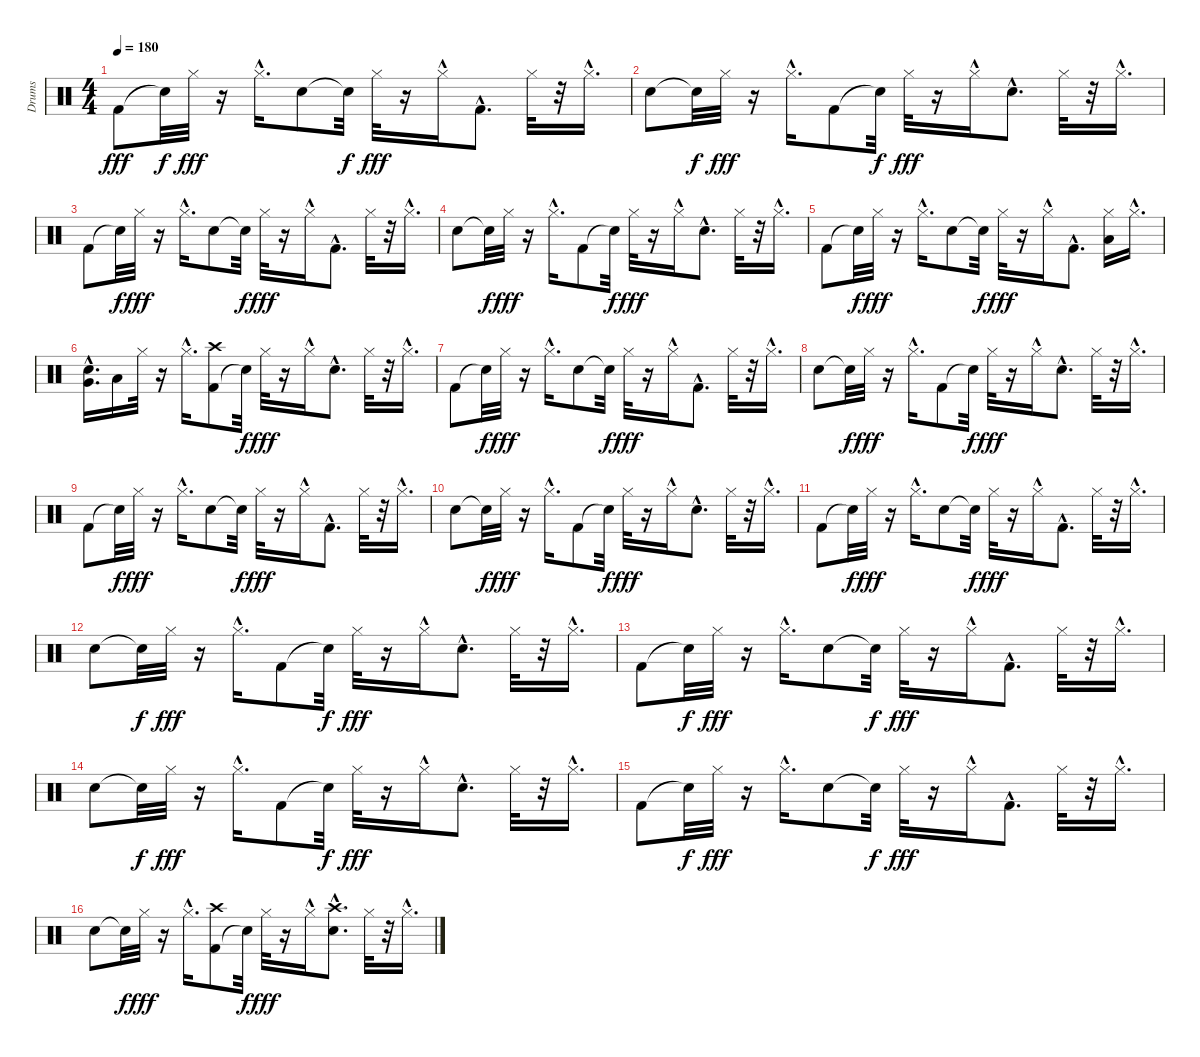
\track ("Drums" "Drums") {instrument percussion}
\staff {score}
\articulation defaults
\ts (4 4)
\tempo 180
\clef neutral
\ks c "Kick (hit) 2".8{dy fff} "Snare (hit)"{t}.32{dy f} "Hi-Hat (closed)".32{dy fff}
r.16 "Hi-Hat (closed)"{hac}.16{d} "Snare (hit) 2".8 "Snare (hit)"{t}.32{dy f} "Hi-Hat (closed)".32{dy fff} r.16 "Hi-Hat (closed)"{hac}.16 "Kick (hit) 2"{hac}.8{d} "Hi-Hat (closed)".32 r.32 "Hi-Hat (closed)"{hac}.16{d} |
"Snare (hit) 2".8 "Snare (hit)"{t}.32{dy f} "Hi-Hat (closed)".32{dy fff} r.16 "Hi-Hat (closed)"{hac}.16{d} "Kick (hit) 2".8 "Snare (hit)"{t}.32{dy f} "Hi-Hat (closed)".32{dy fff} r.16 "Hi-Hat (closed)"{hac}.16 "Snare (hit) 2"{hac}.8{d} "Hi-Hat (closed)".32 r.32 "Hi-Hat (closed)"{hac}.16{d} |
"Kick (hit) 2".8 "Snare (hit)"{t}.32{dy f} "Hi-Hat (closed)".32{dy fff} r.16 "Hi-Hat (closed)"{hac}.16{d} "Snare (hit) 2".8 "Snare (hit)"{t}.32{dy f} "Hi-Hat (closed)".32{dy fff} r.16 "Hi-Hat (closed)"{hac}.16 "Kick (hit) 2"{hac}.8{d} "Hi-Hat (closed)".32 r.32 "Hi-Hat (closed)"{hac}.16{d} |
"Snare (hit) 2".8 "Snare (hit)"{t}.32{dy f} "Hi-Hat (closed)".32{dy fff} r.16 "Hi-Hat (closed)"{hac}.16{d} "Kick (hit) 2".8 "Snare (hit)"{t}.32{dy f} "Hi-Hat (closed)".32{dy fff} r.16 "Hi-Hat (closed)"{hac}.16 "Snare (hit) 2"{hac}.8{d} "Hi-Hat (closed)".32 r.32 "Hi-Hat (closed)"{hac}.16{d} |
"Kick (hit) 2".8 "Snare (hit)"{t}.32{dy f} "Hi-Hat (closed)".32{dy fff} r.16 "Hi-Hat (closed)"{hac}.16{d} "Snare (hit) 2".8 "Snare (hit)"{t}.32{dy f} "Hi-Hat (closed)".32{dy fff} r.16 "Hi-Hat (closed)"{hac}.16 "Kick (hit) 2"{hac}.8{d} ("Hi-Hat (closed)" "Low Tom (hit)").16 "Hi-Hat (closed)"{hac}.16{d} |
("Snare (hit) 2"{hac} "Very Low Tom (hit)").16{d} "Low Floor Tom (hit)".16 "Hi-Hat (closed)".32 r.16 "Hi-Hat (closed)"{hac}.16{d} ("Kick (hit) 2" "Crash high (hit)").8 "Snare (hit)"{t}.32{dy f} "Hi-Hat (closed)".32{dy fff} r.16 "Hi-Hat (closed)"{hac}.16 "Snare (hit) 2"{hac}.8{d} "Hi-Hat (closed)".32 r.32 "Hi-Hat (closed)"{hac}.16{d} |
"Kick (hit) 2".8 "Snare (hit)"{t}.32{dy f} "Hi-Hat (closed)".32{dy fff} r.16 "Hi-Hat (closed)"{hac}.16{d} "Snare (hit) 2".8 "Snare (hit)"{t}.32{dy f} "Hi-Hat (closed)".32{dy fff} r.16 "Hi-Hat (closed)"{hac}.16 "Kick (hit) 2"{hac}.8{d} "Hi-Hat (closed)".32 r.32 "Hi-Hat (closed)"{hac}.16{d} |
"Snare (hit) 2".8 "Snare (hit)"{t}.32{dy f} "Hi-Hat (closed)".32{dy fff} r.16 "Hi-Hat (closed)"{hac}.16{d} "Kick (hit) 2".8 "Snare (hit)"{t}.32{dy f} "Hi-Hat (closed)".32{dy fff} r.16 "Hi-Hat (closed)"{hac}.16 "Snare (hit) 2"{hac}.8{d} "Hi-Hat (closed)".32 r.32 "Hi-Hat (closed)"{hac}.16{d} |
"Kick (hit) 2".8 "Snare (hit)"{t}.32{dy f} "Hi-Hat (closed)".32{dy fff} r.16 "Hi-Hat (closed)"{hac}.16{d} "Snare (hit) 2".8 "Snare (hit)"{t}.32{dy f} "Hi-Hat (closed)".32{dy fff} r.16 "Hi-Hat (closed)"{hac}.16 "Kick (hit) 2"{hac}.8{d} "Hi-Hat (closed)".32 r.32 "Hi-Hat (closed)"{hac}.16{d} |
"Snare (hit) 2".8 "Snare (hit)"{t}.32{dy f} "Hi-Hat (closed)".32{dy fff} r.16 "Hi-Hat (closed)"{hac}.16{d} "Kick (hit) 2".8 "Snare (hit)"{t}.32{dy f} "Hi-Hat (closed)".32{dy fff} r.16 "Hi-Hat (closed)"{hac}.16 "Snare (hit) 2"{hac}.8{d} "Hi-Hat (closed)".32 r.32 "Hi-Hat (closed)"{hac}.16{d} |
"Kick (hit) 2".8 "Snare (hit)"{t}.32{dy f} "Hi-Hat (closed)".32{dy fff} r.16 "Hi-Hat (closed)"{hac}.16{d} "Snare (hit) 2".8 "Snare (hit)"{t}.32{dy f} "Hi-Hat (closed)".32{dy fff} r.16 "Hi-Hat (closed)"{hac}.16 "Kick (hit) 2"{hac}.8{d} "Hi-Hat (closed)".32 r.32 "Hi-Hat (closed)"{hac}.16{d} |
"Snare (hit) 2".8 "Snare (hit)"{t}.32{dy f} "Hi-Hat (closed)".32{dy fff} r.16 "Hi-Hat (closed)"{hac}.16{d} "Kick (hit) 2".8 "Snare (hit)"{t}.32{dy f} "Hi-Hat (closed)".32{dy fff} r.16 "Hi-Hat (closed)"{hac}.16 "Snare (hit) 2"{hac}.8{d} "Hi-Hat (closed)".32 r.32 "Hi-Hat (closed)"{hac}.16{d} |
"Kick (hit) 2".8 "Snare (hit)"{t}.32{dy f} "Hi-Hat (closed)".32{dy fff} r.16 "Hi-Hat (closed)"{hac}.16{d} "Snare (hit) 2".8 "Snare (hit)"{t}.32{dy f} "Hi-Hat (closed)".32{dy fff} r.16 "Hi-Hat (closed)"{hac}.16 "Kick (hit) 2"{hac}.8{d} "Hi-Hat (closed)".32 r.32 "Hi-Hat (closed)"{hac}.16{d} |
"Snare (hit) 2".8 "Snare (hit)"{t}.32{dy f} "Hi-Hat (closed)".32{dy fff} r.16 "Hi-Hat (closed)"{hac}.16{d} "Kick (hit) 2".8 "Snare (hit)"{t}.32{dy f} "Hi-Hat (closed)".32{dy fff} r.16 "Hi-Hat (closed)"{hac}.16 "Snare (hit) 2"{hac}.8{d} "Hi-Hat (closed)".32 r.32 "Hi-Hat (closed)"{hac}.16{d} |
"Kick (hit) 2".8 "Snare (hit)"{t}.32{dy f} "Hi-Hat (closed)".32{dy fff} r.16 "Hi-Hat (closed)"{hac}.16{d} "Snare (hit) 2".8 "Snare (hit)"{t}.32{dy f} "Hi-Hat (closed)".32{dy fff} r.16 "Hi-Hat (closed)"{hac}.16 "Kick (hit) 2"{hac}.8{d} "Hi-Hat (closed)".32 r.32 "Hi-Hat (closed)"{hac}.16{d} |
"Snare (hit) 2".8 "Snare (hit)"{t}.32{dy f} "Hi-Hat (closed)".32{dy fff} r.16 "Hi-Hat (closed)"{hac}.16{d} ("Kick (hit) 2" "Crash high (hit)").8 "Snare (hit)"{t}.32{dy f} "Hi-Hat (closed)".32{dy fff} r.16 "Hi-Hat (closed)"{hac}.16 ("Snare (hit) 2"{hac} "Crash high (hit)").8{d} "Hi-Hat (closed)".32 r.32 "Hi-Hat (closed)"{hac}.16{d}
